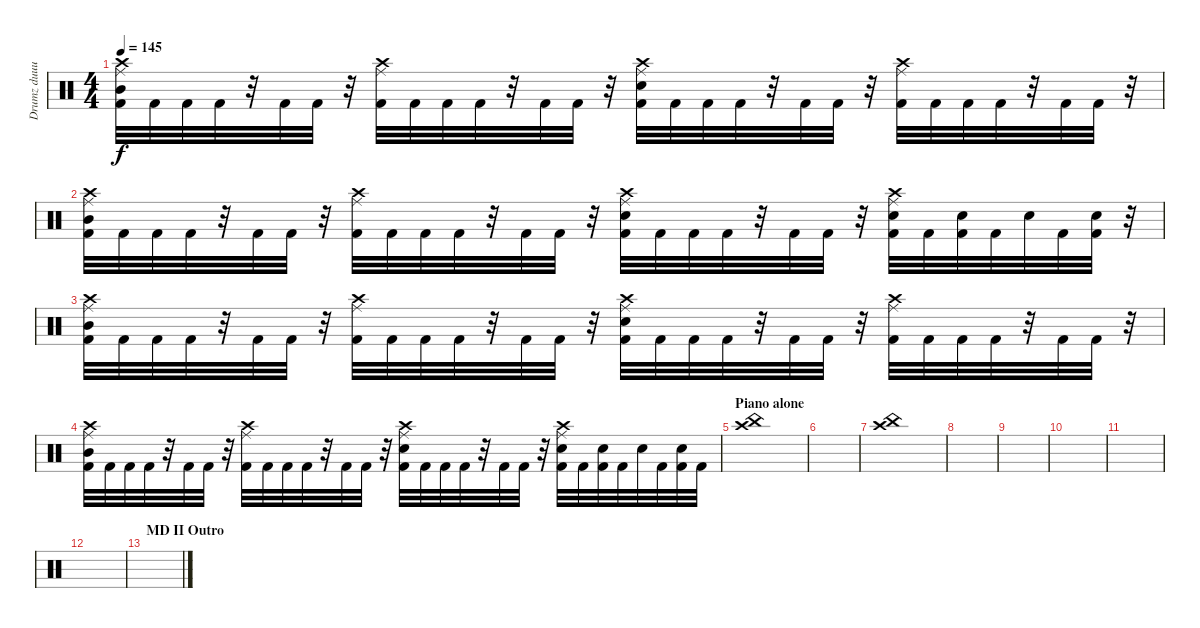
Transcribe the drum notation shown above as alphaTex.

\track ("Drumz duuuuude" "Drumz duuu") {instrument percussion}
\staff {score}
\articulation defaults
\ts (4 4)
\tempo 145
\clef neutral
\ks c
("Crash high (hit)" "Ride (middle)" "Kick (hit) 2" "Mid Tom (hit)").32{dy f} "Kick (hit) 2".32 "Kick (hit) 2".32 "Kick (hit) 2".32 r.32 "Kick (hit) 2".32 "Kick (hit) 2".32 r.32 ("Crash high (hit)" "Ride (middle)" "Kick (hit) 2").32 "Kick (hit) 2".32 "Kick (hit) 2".32 "Kick (hit) 2".32 r.32 "Kick (hit) 2".32 "Kick (hit) 2".32 r.32 ("Crash high (hit)" "Ride (middle)" "Kick (hit) 2" "Electric Snare (hit)").32 "Kick (hit) 2".32 "Kick (hit) 2".32 "Kick (hit) 2".32 r.32 "Kick (hit) 2".32 "Kick (hit) 2".32 r.32 ("Crash high (hit)" "Ride (middle)" "Kick (hit) 2").32 "Kick (hit) 2".32 "Kick (hit) 2".32 "Kick (hit) 2".32 r.32 "Kick (hit) 2".32 "Kick (hit) 2".32 r.32 |
("Crash high (hit)" "Ride (middle)" "Kick (hit) 2" "Mid Tom (hit)").32 "Kick (hit) 2".32 "Kick (hit) 2".32 "Kick (hit) 2".32 r.32 "Kick (hit) 2".32 "Kick (hit) 2".32 r.32 ("Crash high (hit)" "Ride (middle)" "Kick (hit) 2").32 "Kick (hit) 2".32 "Kick (hit) 2".32 "Kick (hit) 2".32 r.32 "Kick (hit) 2".32 "Kick (hit) 2".32 r.32 ("Crash high (hit)" "Ride (middle)" "Kick (hit) 2" "Electric Snare (hit)").32 "Kick (hit) 2".32 "Kick (hit) 2".32 "Kick (hit) 2".32 r.32 "Kick (hit) 2".32 "Kick (hit) 2".32 r.32 ("Crash high (hit)" "Ride (middle)" "Kick (hit) 2" "Electric Snare (hit)").32 "Kick (hit) 2".32 ("Kick (hit) 2" "Electric Snare (hit)").32 "Kick (hit) 2".32 "Electric Snare (hit)".32 "Kick (hit) 2".32 ("Kick (hit) 2" "Electric Snare (hit)").32 r.32 |
("Crash high (hit)" "Ride (middle)" "Kick (hit) 2" "Mid Tom (hit)").32 "Kick (hit) 2".32 "Kick (hit) 2".32 "Kick (hit) 2".32 r.32 "Kick (hit) 2".32 "Kick (hit) 2".32 r.32 ("Crash high (hit)" "Ride (middle)" "Kick (hit) 2").32 "Kick (hit) 2".32 "Kick (hit) 2".32 "Kick (hit) 2".32 r.32 "Kick (hit) 2".32 "Kick (hit) 2".32 r.32 ("Crash high (hit)" "Ride (middle)" "Kick (hit) 2" "Electric Snare (hit)").32 "Kick (hit) 2".32 "Kick (hit) 2".32 "Kick (hit) 2".32 r.32 "Kick (hit) 2".32 "Kick (hit) 2".32 r.32 ("Crash high (hit)" "Ride (middle)" "Kick (hit) 2").32 "Kick (hit) 2".32 "Kick (hit) 2".32 "Kick (hit) 2".32 r.32 "Kick (hit) 2".32 "Kick (hit) 2".32 r.32 |
("Crash high (hit)" "Ride (middle)" "Kick (hit) 2" "Mid Tom (hit)").32 "Kick (hit) 2".32 "Kick (hit) 2".32 "Kick (hit) 2".32 r.32 "Kick (hit) 2".32 "Kick (hit) 2".32 r.32 ("Crash high (hit)" "Ride (middle)" "Kick (hit) 2").32 "Kick (hit) 2".32 "Kick (hit) 2".32 "Kick (hit) 2".32 r.32 "Kick (hit) 2".32 "Kick (hit) 2".32 r.32 ("Crash high (hit)" "Ride (middle)" "Kick (hit) 2" "Electric Snare (hit)").32 "Kick (hit) 2".32 "Kick (hit) 2".32 "Kick (hit) 2".32 r.32 "Kick (hit) 2".32 "Kick (hit) 2".32 r.32 ("Crash high (hit)" "Ride (middle)" "Kick (hit) 2" "Electric Snare (hit)").32 "Kick (hit) 2".32 ("Kick (hit) 2" "Electric Snare (hit)").32 "Kick (hit) 2".32 "Electric Snare (hit)".32 "Kick (hit) 2".32 ("Kick (hit) 2" "Electric Snare (hit)").32 "Kick (hit) 2".32 |
\section ("" "Piano alone")
("Crash high (hit)" "China (hit)").1 |
|
("Crash high (hit)" "China (hit)").1 |
|
|
|
|
|
\section ("" "MD II Outro")
